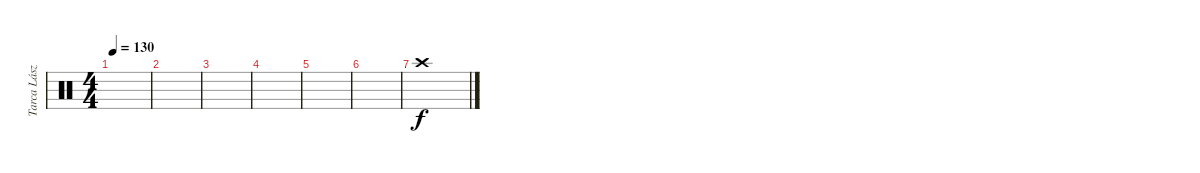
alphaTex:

\track ("Tarca László" "Tarca Lász") {instrument percussion}
\staff {score}
\articulation defaults
\ts (4 4)
\tempo 130
\clef neutral
\ks c
|
|
|
|
|
|
"Crash high (hit)".1
